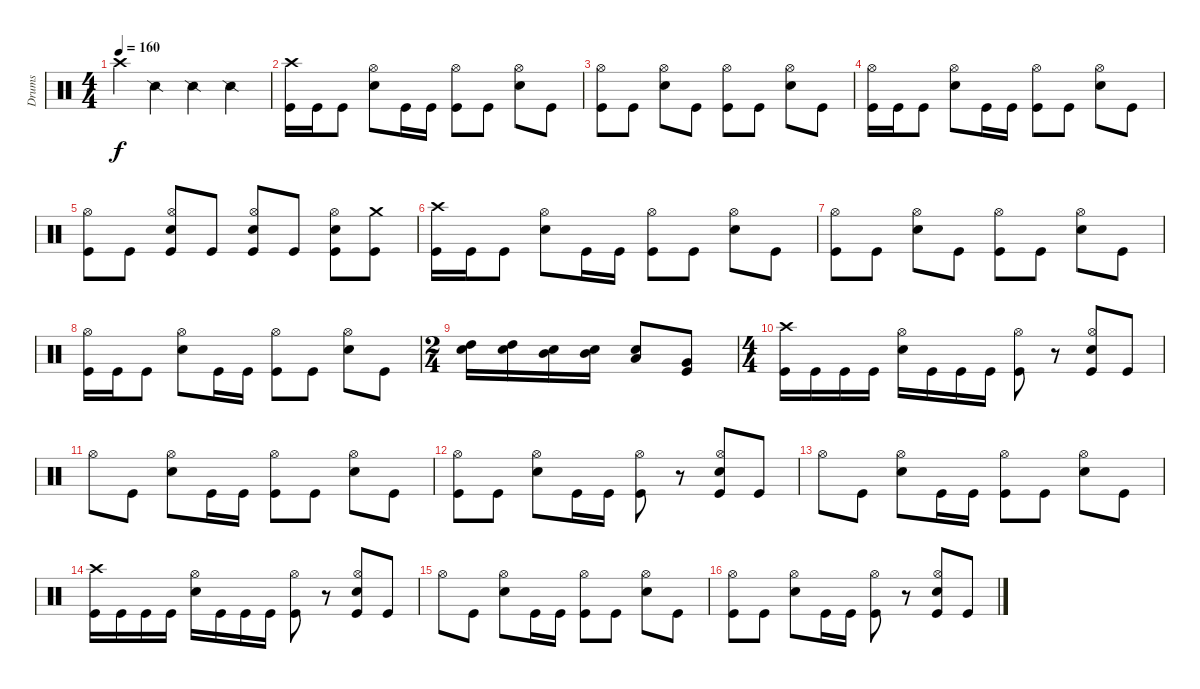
\track ("Drums" "Drums") {instrument percussion}
\staff {score}
\articulation defaults
\ts (4 4)
\tempo 160
\clef neutral
\ks c "Crash high (hit)".4{dy f} "Snare (side stick) 2".4 "Snare (side stick) 2".4 "Snare (side stick) 2".4
|
("Crash high (hit)" "Kick (hit)").16 "Kick (hit)".16 "Kick (hit)".8 ("Hi-Hat (open)" "Electric Snare (hit)").8 "Kick (hit)".16 "Kick (hit)".16 ("Hi-Hat (open)" "Kick (hit)").8 "Kick (hit)".8 ("Hi-Hat (open)" "Electric Snare (hit)").8 "Kick (hit)".8 |
("Hi-Hat (open)" "Kick (hit)").8 "Kick (hit)".8 ("Hi-Hat (open)" "Electric Snare (hit)").8 "Kick (hit)".8 ("Hi-Hat (open)" "Kick (hit)").8 "Kick (hit)".8 ("Hi-Hat (open)" "Electric Snare (hit)").8 "Kick (hit)".8 |
("Hi-Hat (open)" "Kick (hit)").16 "Kick (hit)".16 "Kick (hit)".8 ("Hi-Hat (open)" "Electric Snare (hit)").8 "Kick (hit)".16 "Kick (hit)".16 ("Hi-Hat (open)" "Kick (hit)").8 "Kick (hit)".8 ("Hi-Hat (open)" "Electric Snare (hit)").8 "Kick (hit)".8 |
("Hi-Hat (open)" "Kick (hit)").8 "Kick (hit)".8 ("Hi-Hat (open)" "Electric Snare (hit)" "Kick (hit)").8 "Kick (hit)".8 ("Hi-Hat (open)" "Electric Snare (hit)" "Kick (hit)").8 "Kick (hit)".8 ("Hi-Hat (open)" "Electric Snare (hit)" "Kick (hit)").8 ("Crash medium (hit)" "Kick (hit)").8 |
("Crash high (hit)" "Kick (hit)").16 "Kick (hit)".16 "Kick (hit)".8 ("Hi-Hat (open)" "Electric Snare (hit)").8 "Kick (hit)".16 "Kick (hit)".16 ("Hi-Hat (open)" "Kick (hit)").8 "Kick (hit)".8 ("Hi-Hat (open)" "Electric Snare (hit)").8 "Kick (hit)".8 |
("Hi-Hat (open)" "Kick (hit)").8 "Kick (hit)".8 ("Hi-Hat (open)" "Electric Snare (hit)").8 "Kick (hit)".8 ("Hi-Hat (open)" "Kick (hit)").8 "Kick (hit)".8 ("Hi-Hat (open)" "Electric Snare (hit)").8 "Kick (hit)".8 |
("Hi-Hat (open)" "Kick (hit)").16 "Kick (hit)".16 "Kick (hit)".8 ("Hi-Hat (open)" "Electric Snare (hit)").8 "Kick (hit)".16 "Kick (hit)".16 ("Hi-Hat (open)" "Kick (hit)").8 "Kick (hit)".8 ("Hi-Hat (open)" "Electric Snare (hit)").8 "Kick (hit)".8 |
\ts (2 4)
("High Tom (hit)" "Electric Snare (hit)").16 ("High Tom (hit)" "Electric Snare (hit)").16 ("Mid Tom (hit)" "Electric Snare (hit)").16 ("Mid Tom (hit)" "Electric Snare (hit)").16 ("Low Tom (hit)" "Electric Snare (hit)").8 ("Very Low Tom (hit)" "Kick (hit)").8 |
\ts (4 4)
("Crash high (hit)" "Kick (hit)").16 "Kick (hit)".16 "Kick (hit)".16 "Kick (hit)".16 ("Hi-Hat (open)" "Electric Snare (hit)").16 "Kick (hit)".16 "Kick (hit)".16 "Kick (hit)".16 ("Hi-Hat (open)" "Kick (hit)").8 r.8 ("Hi-Hat (open)" "Electric Snare (hit)" "Kick (hit)").8 "Kick (hit)".8 |
"Hi-Hat (open)".8 "Kick (hit)".8 ("Hi-Hat (open)" "Electric Snare (hit)").8 "Kick (hit)".16 "Kick (hit)".16 ("Hi-Hat (open)" "Kick (hit)").8 "Kick (hit)".8 ("Hi-Hat (open)" "Electric Snare (hit)").8 "Kick (hit)".8 |
("Hi-Hat (open)" "Kick (hit)").8 "Kick (hit)".8 ("Hi-Hat (open)" "Electric Snare (hit)").8 "Kick (hit)".16 "Kick (hit)".16 ("Hi-Hat (open)" "Kick (hit)").8 r.8 ("Hi-Hat (open)" "Electric Snare (hit)" "Kick (hit)").8 "Kick (hit)".8 |
"Hi-Hat (open)".8 "Kick (hit)".8 ("Hi-Hat (open)" "Electric Snare (hit)").8 "Kick (hit)".16 "Kick (hit)".16 ("Hi-Hat (open)" "Kick (hit)").8 "Kick (hit)".8 ("Hi-Hat (open)" "Electric Snare (hit)").8 "Kick (hit)".8 |
("Crash high (hit)" "Kick (hit)").16 "Kick (hit)".16 "Kick (hit)".16 "Kick (hit)".16 ("Hi-Hat (open)" "Electric Snare (hit)").16 "Kick (hit)".16 "Kick (hit)".16 "Kick (hit)".16 ("Hi-Hat (open)" "Kick (hit)").8 r.8 ("Hi-Hat (open)" "Electric Snare (hit)" "Kick (hit)").8 "Kick (hit)".8 |
"Hi-Hat (open)".8 "Kick (hit)".8 ("Hi-Hat (open)" "Electric Snare (hit)").8 "Kick (hit)".16 "Kick (hit)".16 ("Hi-Hat (open)" "Kick (hit)").8 "Kick (hit)".8 ("Hi-Hat (open)" "Electric Snare (hit)").8 "Kick (hit)".8 |
("Hi-Hat (open)" "Kick (hit)").8 "Kick (hit)".8 ("Hi-Hat (open)" "Electric Snare (hit)").8 "Kick (hit)".16 "Kick (hit)".16 ("Hi-Hat (open)" "Kick (hit)").8 r.8 ("Hi-Hat (open)" "Electric Snare (hit)" "Kick (hit)").8 "Kick (hit)".8
